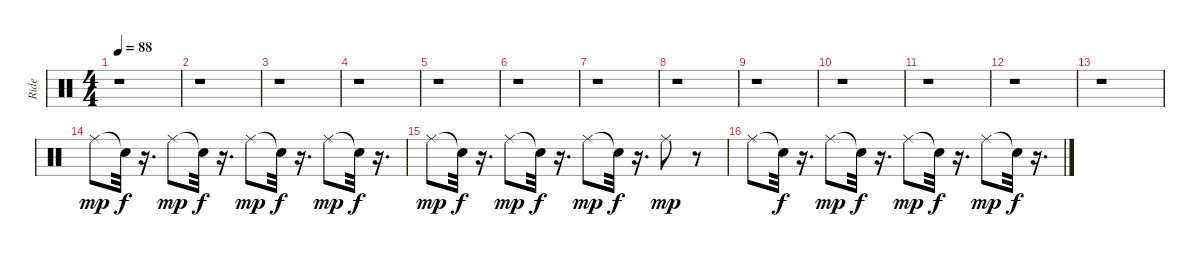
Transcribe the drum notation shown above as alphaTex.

\track ("Ride" "Ride") {instrument percussion}
\staff {score}
\articulation defaults
\ts (4 4)
\tempo 88
\clef neutral
\ks c
r.1{dy mp} |
r.1 |
r.1 |
r.1 |
r.1 |
r.1 |
r.1 |
r.1 |
r.1 |
r.1 |
r.1 |
r.1 |
r.1 |
"Ride (middle)".8 "Snare (hit)"{t}.32{dy f} r.16{d} "Ride (middle)".8{dy mp} "Snare (hit)"{t}.32{dy f} r.16{d} "Ride (middle)".8{dy mp} "Snare (hit)"{t}.32{dy f} r.16{d} "Ride (middle)".8{dy mp} "Snare (hit)"{t}.32{dy f} r.16{d} |
"Ride (middle)".8{dy mp} "Snare (hit)"{t}.32{dy f} r.16{d} "Ride (middle)".8{dy mp} "Snare (hit)"{t}.32{dy f} r.16{d} "Ride (middle)".8{dy mp} "Snare (hit)"{t}.32{dy f} r.16{d} "Ride (middle)".8{dy mp} r.8 |
"Ride (middle)".8 "Snare (hit)"{t}.32{dy f} r.16{d} "Ride (middle)".8{dy mp} "Snare (hit)"{t}.32{dy f} r.16{d} "Ride (middle)".8{dy mp} "Snare (hit)"{t}.32{dy f} r.16{d} "Ride (middle)".8{dy mp} "Snare (hit)"{t}.32{dy f} r.16{d}
